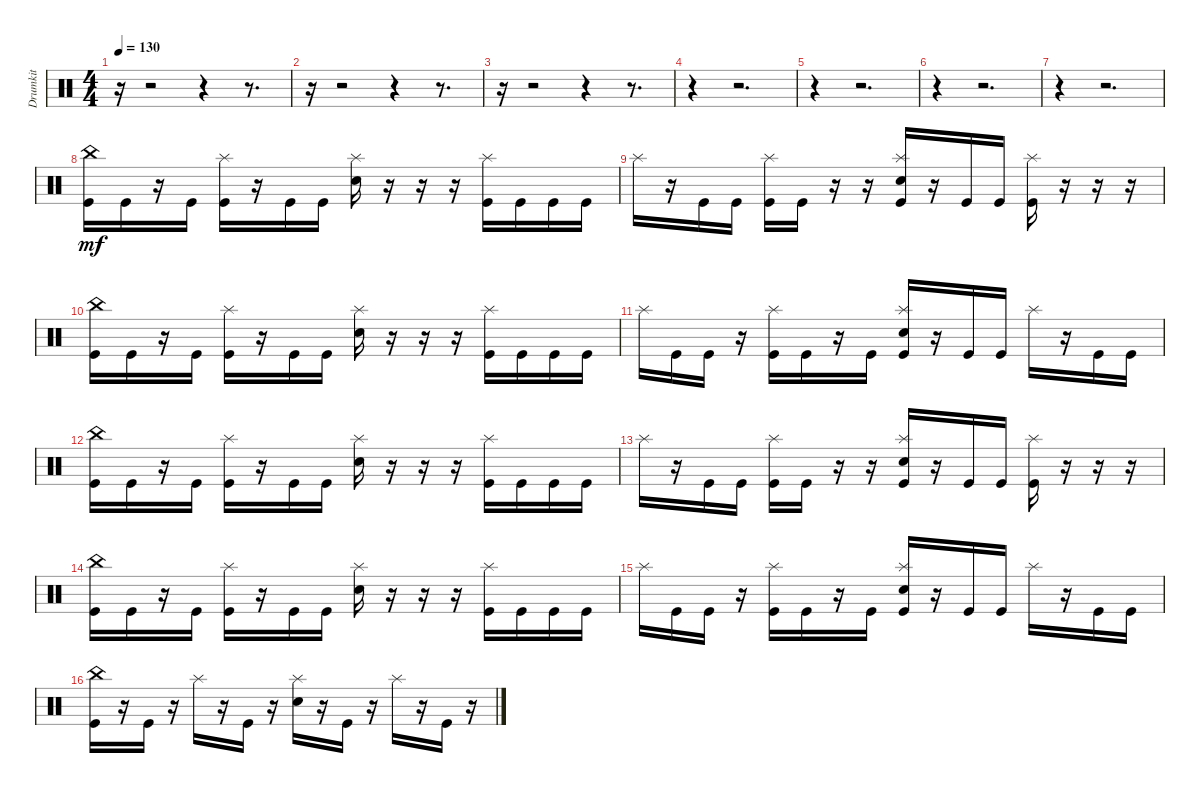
\track ("Drumkit" "Drumkit") {instrument percussion}
\staff {score}
\articulation defaults
\ts (4 4)
\tempo 130
\clef neutral
\ks c
r.16{dy mf} r.2 r.4 r.8{d} |
r.16 r.2 r.4 r.8{d} |
r.16 r.2 r.4 r.8{d} |
r.4 r.2{d} |
r.4 r.2{d} |
r.4 r.2{d} |
r.4 r.2{d} |
("China (hit)" "Kick (hit)").16 "Kick (hit)".16 r.16 "Kick (hit)".16 ("Splash (hit)" "Kick (hit)").16 r.16 "Kick (hit)".16 "Kick (hit)".16 ("Splash (hit)" "Snare (hit) 2").16 r.16 r.16 r.16 ("Splash (hit)" "Kick (hit)").16 "Kick (hit)".16 "Kick (hit)".16 "Kick (hit)".16 |
"Splash (hit)".16 r.16 "Kick (hit)".16 "Kick (hit)".16 ("Splash (hit)" "Kick (hit)").16 "Kick (hit)".16 r.16 r.16 ("Splash (hit)" "Kick (hit)" "Snare (hit) 2").16 r.16 "Kick (hit)".16 "Kick (hit)".16 ("Splash (hit)" "Kick (hit)").16 r.16 r.16 r.16 |
("China (hit)" "Kick (hit)").16 "Kick (hit)".16 r.16 "Kick (hit)".16 ("Splash (hit)" "Kick (hit)").16 r.16 "Kick (hit)".16 "Kick (hit)".16 ("Splash (hit)" "Snare (hit) 2").16 r.16 r.16 r.16 ("Splash (hit)" "Kick (hit)").16 "Kick (hit)".16 "Kick (hit)".16 "Kick (hit)".16 |
"Splash (hit)".16 "Kick (hit)".16 "Kick (hit)".16 r.16 ("Splash (hit)" "Kick (hit)").16 "Kick (hit)".16 r.16 "Kick (hit)".16 ("Splash (hit)" "Snare (hit) 2" "Kick (hit)").16 r.16 "Kick (hit)".16 "Kick (hit)".16 "Splash (hit)".16 r.16 "Kick (hit)".16 "Kick (hit)".16 |
("China (hit)" "Kick (hit)").16 "Kick (hit)".16 r.16 "Kick (hit)".16 ("Splash (hit)" "Kick (hit)").16 r.16 "Kick (hit)".16 "Kick (hit)".16 ("Splash (hit)" "Snare (hit) 2").16 r.16 r.16 r.16 ("Splash (hit)" "Kick (hit)").16 "Kick (hit)".16 "Kick (hit)".16 "Kick (hit)".16 |
"Splash (hit)".16 r.16 "Kick (hit)".16 "Kick (hit)".16 ("Splash (hit)" "Kick (hit)").16 "Kick (hit)".16 r.16 r.16 ("Splash (hit)" "Kick (hit)" "Snare (hit) 2").16 r.16 "Kick (hit)".16 "Kick (hit)".16 ("Splash (hit)" "Kick (hit)").16 r.16 r.16 r.16 |
("China (hit)" "Kick (hit)").16 "Kick (hit)".16 r.16 "Kick (hit)".16 ("Splash (hit)" "Kick (hit)").16 r.16 "Kick (hit)".16 "Kick (hit)".16 ("Splash (hit)" "Snare (hit) 2").16 r.16 r.16 r.16 ("Splash (hit)" "Kick (hit)").16 "Kick (hit)".16 "Kick (hit)".16 "Kick (hit)".16 |
"Splash (hit)".16 "Kick (hit)".16 "Kick (hit)".16 r.16 ("Splash (hit)" "Kick (hit)").16 "Kick (hit)".16 r.16 "Kick (hit)".16 ("Splash (hit)" "Snare (hit) 2" "Kick (hit)").16 r.16 "Kick (hit)".16 "Kick (hit)".16 "Splash (hit)".16 r.16 "Kick (hit)".16 "Kick (hit)".16 |
("China (hit)" "Kick (hit)").16 r.16 "Kick (hit)".16 r.16 "Splash (hit)".16 r.16 "Kick (hit)".16 r.16 ("Splash (hit)" "Snare (hit) 2").16 r.16 "Kick (hit)".16 r.16 "Splash (hit)".16 r.16 "Kick (hit)".16 r.16
